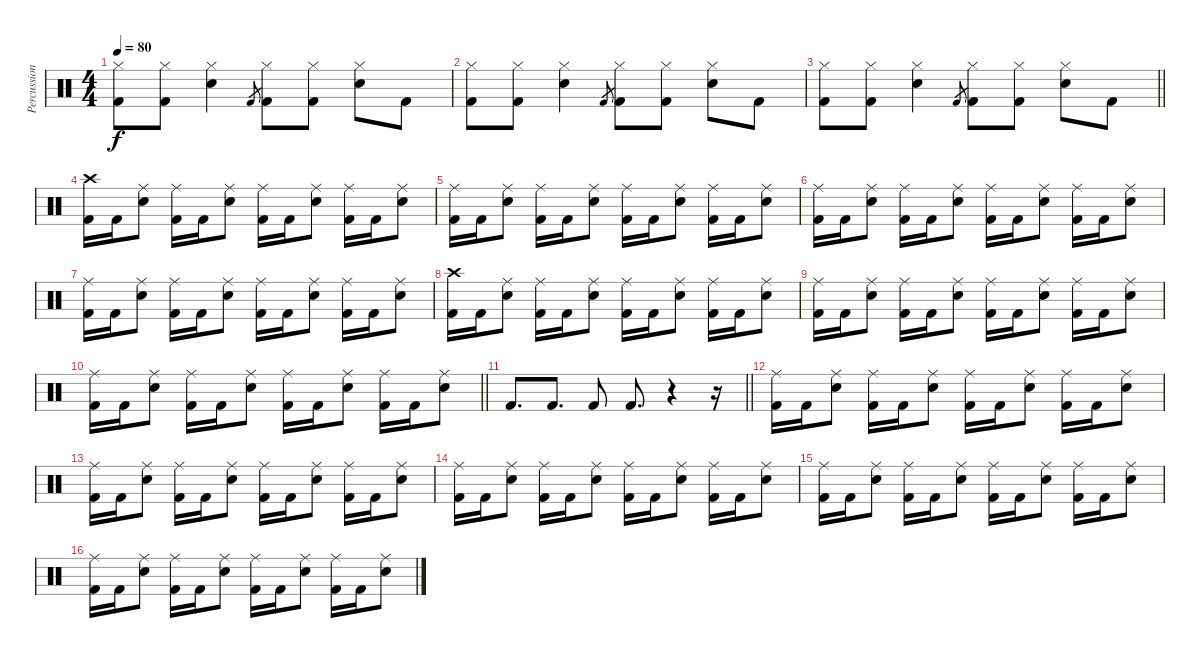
\track ("Percussion" "Percussion") {instrument percussion}
\staff {score}
\articulation defaults
\ts (4 4)
\tempo 80
\clef neutral
\ks c
("Hi-Hat (closed)" "Kick (hit) 2").8{dy f} ("Hi-Hat (closed)" "Kick (hit) 2").8 ("Hi-Hat (closed)" "Snare (hit) 2").4 "Kick (hit) 2".8{gr} ("Hi-Hat (closed)" "Kick (hit) 2").8 ("Hi-Hat (closed)" "Kick (hit) 2").8 ("Hi-Hat (closed)" "Snare (hit) 2").8 "Kick (hit) 2".8 |
("Hi-Hat (closed)" "Kick (hit) 2").8 ("Hi-Hat (closed)" "Kick (hit) 2").8 ("Hi-Hat (closed)" "Snare (hit) 2").4 "Kick (hit) 2".8{gr} ("Hi-Hat (closed)" "Kick (hit) 2").8 ("Hi-Hat (closed)" "Kick (hit) 2").8 ("Hi-Hat (closed)" "Snare (hit) 2").8 "Kick (hit) 2".8 |
\barLineRight lightlight
("Hi-Hat (closed)" "Kick (hit) 2").8 ("Hi-Hat (closed)" "Kick (hit) 2").8 ("Hi-Hat (closed)" "Snare (hit) 2").4 "Kick (hit) 2".8{gr} ("Hi-Hat (closed)" "Kick (hit) 2").8 ("Hi-Hat (closed)" "Kick (hit) 2").8 ("Hi-Hat (closed)" "Snare (hit) 2").8 "Kick (hit) 2".8 |
("Crash high (hit)" "Kick (hit) 2").16 "Kick (hit) 2".16 ("Ride (middle)" "Snare (hit) 2").8 ("Ride (middle)" "Kick (hit) 2").16 "Kick (hit) 2".16 ("Ride (middle)" "Snare (hit) 2").8 ("Ride (middle)" "Kick (hit) 2").16 "Kick (hit) 2".16 ("Ride (middle)" "Snare (hit) 2").8 ("Ride (middle)" "Kick (hit) 2").16 "Kick (hit) 2".16 ("Ride (middle)" "Snare (hit) 2").8 |
("Ride (middle)" "Kick (hit) 2").16 "Kick (hit) 2".16 ("Ride (middle)" "Snare (hit) 2").8 ("Ride (middle)" "Kick (hit) 2").16 "Kick (hit) 2".16 ("Ride (middle)" "Snare (hit) 2").8 ("Ride (middle)" "Kick (hit) 2").16 "Kick (hit) 2".16 ("Ride (middle)" "Snare (hit) 2").8 ("Ride (middle)" "Kick (hit) 2").16 "Kick (hit) 2".16 ("Ride (middle)" "Snare (hit) 2").8 |
("Ride (middle)" "Kick (hit) 2").16 "Kick (hit) 2".16 ("Ride (middle)" "Snare (hit) 2").8 ("Ride (middle)" "Kick (hit) 2").16 "Kick (hit) 2".16 ("Ride (middle)" "Snare (hit) 2").8 ("Ride (middle)" "Kick (hit) 2").16 "Kick (hit) 2".16 ("Ride (middle)" "Snare (hit) 2").8 ("Ride (middle)" "Kick (hit) 2").16 "Kick (hit) 2".16 ("Ride (middle)" "Snare (hit) 2").8 |
("Ride (middle)" "Kick (hit) 2").16 "Kick (hit) 2".16 ("Ride (middle)" "Snare (hit) 2").8 ("Ride (middle)" "Kick (hit) 2").16 "Kick (hit) 2".16 ("Ride (middle)" "Snare (hit) 2").8 ("Ride (middle)" "Kick (hit) 2").16 "Kick (hit) 2".16 ("Ride (middle)" "Snare (hit) 2").8 ("Ride (middle)" "Kick (hit) 2").16 "Kick (hit) 2".16 ("Ride (middle)" "Snare (hit) 2").8 |
("Crash high (hit)" "Kick (hit) 2").16 "Kick (hit) 2".16 ("Ride (middle)" "Snare (hit) 2").8 ("Ride (middle)" "Kick (hit) 2").16 "Kick (hit) 2".16 ("Ride (middle)" "Snare (hit) 2").8 ("Ride (middle)" "Kick (hit) 2").16 "Kick (hit) 2".16 ("Ride (middle)" "Snare (hit) 2").8 ("Ride (middle)" "Kick (hit) 2").16 "Kick (hit) 2".16 ("Ride (middle)" "Snare (hit) 2").8 |
("Ride (middle)" "Kick (hit) 2").16 "Kick (hit) 2".16 ("Ride (middle)" "Snare (hit) 2").8 ("Ride (middle)" "Kick (hit) 2").16 "Kick (hit) 2".16 ("Ride (middle)" "Snare (hit) 2").8 ("Ride (middle)" "Kick (hit) 2").16 "Kick (hit) 2".16 ("Ride (middle)" "Snare (hit) 2").8 ("Ride (middle)" "Kick (hit) 2").16 "Kick (hit) 2".16 ("Ride (middle)" "Snare (hit) 2").8 |
\barLineRight lightlight
("Ride (middle)" "Kick (hit) 2").16 "Kick (hit) 2".16 ("Ride (middle)" "Snare (hit) 2").8 ("Ride (middle)" "Kick (hit) 2").16 "Kick (hit) 2".16 ("Ride (middle)" "Snare (hit) 2").8 ("Ride (middle)" "Kick (hit) 2").16 "Kick (hit) 2".16 ("Ride (middle)" "Snare (hit) 2").8 ("Ride (middle)" "Kick (hit) 2").16 "Kick (hit) 2".16 ("Ride (middle)" "Snare (hit) 2").8 |
\barLineRight lightlight "Kick (hit) 2".8{d} "Kick (hit) 2".8{d} "Kick (hit) 2".8 "Kick (hit) 2".8{d}
r.4 r.16 |
("Ride (middle)" "Kick (hit) 2").16 "Kick (hit) 2".16 ("Ride (middle)" "Snare (hit) 2").8 ("Ride (middle)" "Kick (hit) 2").16 "Kick (hit) 2".16 ("Ride (middle)" "Snare (hit) 2").8 ("Ride (middle)" "Kick (hit) 2").16 "Kick (hit) 2".16 ("Ride (middle)" "Snare (hit) 2").8 ("Ride (middle)" "Kick (hit) 2").16 "Kick (hit) 2".16 ("Ride (middle)" "Snare (hit) 2").8 |
("Ride (middle)" "Kick (hit) 2").16 "Kick (hit) 2".16 ("Ride (middle)" "Snare (hit) 2").8 ("Ride (middle)" "Kick (hit) 2").16 "Kick (hit) 2".16 ("Ride (middle)" "Snare (hit) 2").8 ("Ride (middle)" "Kick (hit) 2").16 "Kick (hit) 2".16 ("Ride (middle)" "Snare (hit) 2").8 ("Ride (middle)" "Kick (hit) 2").16 "Kick (hit) 2".16 ("Ride (middle)" "Snare (hit) 2").8 |
("Ride (middle)" "Kick (hit) 2").16 "Kick (hit) 2".16 ("Ride (middle)" "Snare (hit) 2").8 ("Ride (middle)" "Kick (hit) 2").16 "Kick (hit) 2".16 ("Ride (middle)" "Snare (hit) 2").8 ("Ride (middle)" "Kick (hit) 2").16 "Kick (hit) 2".16 ("Ride (middle)" "Snare (hit) 2").8 ("Ride (middle)" "Kick (hit) 2").16 "Kick (hit) 2".16 ("Ride (middle)" "Snare (hit) 2").8 |
("Ride (middle)" "Kick (hit) 2").16 "Kick (hit) 2".16 ("Ride (middle)" "Snare (hit) 2").8 ("Ride (middle)" "Kick (hit) 2").16 "Kick (hit) 2".16 ("Ride (middle)" "Snare (hit) 2").8 ("Ride (middle)" "Kick (hit) 2").16 "Kick (hit) 2".16 ("Ride (middle)" "Snare (hit) 2").8 ("Ride (middle)" "Kick (hit) 2").16 "Kick (hit) 2".16 ("Ride (middle)" "Snare (hit) 2").8 |
("Ride (middle)" "Kick (hit) 2").16 "Kick (hit) 2".16 ("Ride (middle)" "Snare (hit) 2").8 ("Ride (middle)" "Kick (hit) 2").16 "Kick (hit) 2".16 ("Ride (middle)" "Snare (hit) 2").8 ("Ride (middle)" "Kick (hit) 2").16 "Kick (hit) 2".16 ("Ride (middle)" "Snare (hit) 2").8 ("Ride (middle)" "Kick (hit) 2").16 "Kick (hit) 2".16 ("Ride (middle)" "Snare (hit) 2").8
